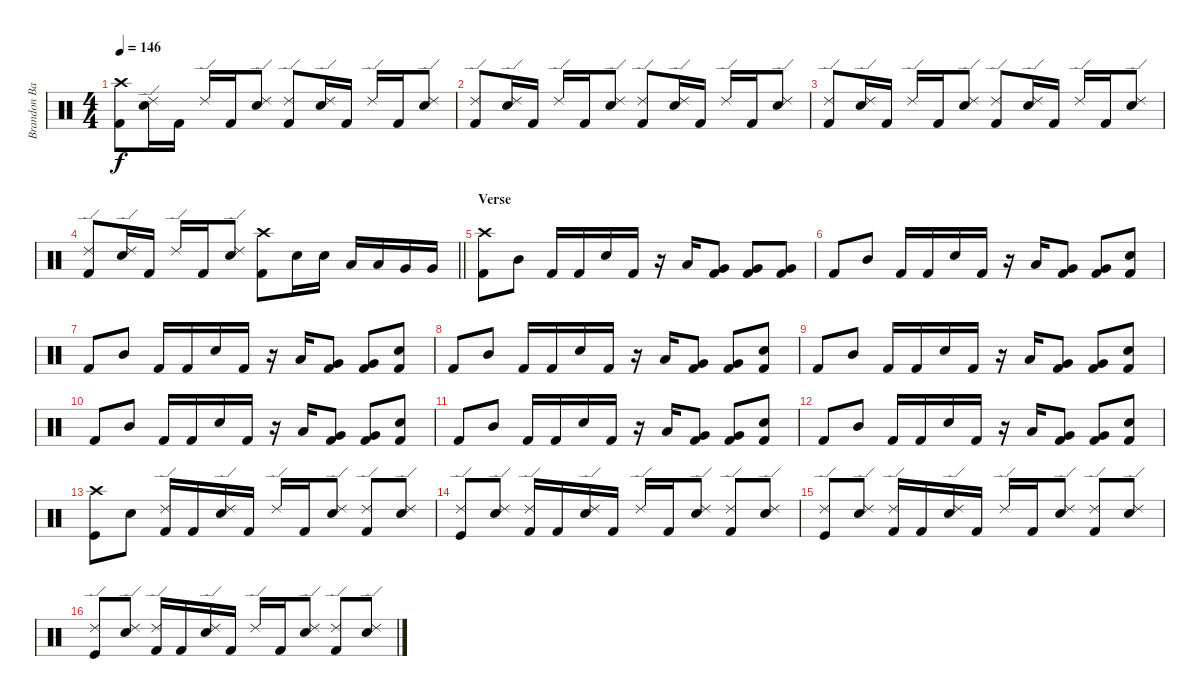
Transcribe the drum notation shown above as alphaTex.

\track ("Brandon Barnes - Drums" "Brandon Ba") {instrument percussion}
\staff {score}
\articulation defaults
\ts (4 4)
\tempo 146
\clef neutral
\ks c
("Crash high (hit)" "Kick (hit) 2").8{dy f} ("Snare (hit) 2" "Ride (edge) 2").16 "Kick (hit) 2".16 "Ride (edge) 2".16 "Kick (hit) 2".16 ("Snare (hit) 2" "Ride (edge) 2").8 ("Ride (edge) 2" "Kick (hit) 2").8 ("Snare (hit) 2" "Ride (edge) 2").16 "Kick (hit) 2".16 "Ride (edge) 2".16 "Kick (hit) 2".16 ("Snare (hit) 2" "Ride (edge) 2").8 |
("Ride (edge) 2" "Kick (hit) 2").8 ("Snare (hit) 2" "Ride (edge) 2").16 "Kick (hit) 2".16 "Ride (edge) 2".16 "Kick (hit) 2".16 ("Snare (hit) 2" "Ride (edge) 2").8 ("Ride (edge) 2" "Kick (hit) 2").8 ("Snare (hit) 2" "Ride (edge) 2").16 "Kick (hit) 2".16 "Ride (edge) 2".16 "Kick (hit) 2".16 ("Snare (hit) 2" "Ride (edge) 2").8 |
("Ride (edge) 2" "Kick (hit) 2").8 ("Snare (hit) 2" "Ride (edge) 2").16 "Kick (hit) 2".16 "Ride (edge) 2".16 "Kick (hit) 2".16 ("Snare (hit) 2" "Ride (edge) 2").8 ("Ride (edge) 2" "Kick (hit) 2").8 ("Snare (hit) 2" "Ride (edge) 2").16 "Kick (hit) 2".16 "Ride (edge) 2".16 "Kick (hit) 2".16 ("Snare (hit) 2" "Ride (edge) 2").8 |
\barLineRight lightlight
("Ride (edge) 2" "Kick (hit) 2").8 ("Snare (hit) 2" "Ride (edge) 2").16 "Kick (hit) 2".16 "Ride (edge) 2".16 "Kick (hit) 2".16 ("Snare (hit) 2" "Ride (edge) 2").8 ("Crash high (hit)" "Kick (hit) 2").8 "Snare (hit) 2".16 "Snare (hit) 2".16 "Low Tom (hit)".16 "Low Tom (hit)".16 "Very Low Tom (hit)".16 "Very Low Tom (hit)".16 |
\section ("" "Verse")
("Crash high (hit)" "Kick (hit) 2").8 "Mid Tom (hit)".8 "Kick (hit) 2".16 "Kick (hit) 2".16 "Snare (hit) 2".16 "Kick (hit) 2".16 r.16 "Low Tom (hit)".16 ("Kick (hit) 2" "Very Low Tom (hit)").8 ("Kick (hit) 2" "Very Low Tom (hit)").8 ("Kick (hit) 2" "Very Low Tom (hit)").8 |
"Kick (hit) 2".8 "Mid Tom (hit)".8 "Kick (hit) 2".16 "Kick (hit) 2".16 "Snare (hit) 2".16 "Kick (hit) 2".16 r.16 "Low Tom (hit)".16 ("Kick (hit) 2" "Very Low Tom (hit)").8 ("Kick (hit) 2" "Very Low Tom (hit)").8 ("Kick (hit) 2" "Snare (hit) 2").8 |
"Kick (hit) 2".8 "Mid Tom (hit)".8 "Kick (hit) 2".16 "Kick (hit) 2".16 "Snare (hit) 2".16 "Kick (hit) 2".16 r.16 "Low Tom (hit)".16 ("Kick (hit) 2" "Very Low Tom (hit)").8 ("Kick (hit) 2" "Very Low Tom (hit)").8 ("Kick (hit) 2" "Snare (hit) 2").8 |
"Kick (hit) 2".8 "Mid Tom (hit)".8 "Kick (hit) 2".16 "Kick (hit) 2".16 "Snare (hit) 2".16 "Kick (hit) 2".16 r.16 "Low Tom (hit)".16 ("Kick (hit) 2" "Very Low Tom (hit)").8 ("Kick (hit) 2" "Very Low Tom (hit)").8 ("Kick (hit) 2" "Snare (hit) 2").8 |
"Kick (hit) 2".8 "Mid Tom (hit)".8 "Kick (hit) 2".16 "Kick (hit) 2".16 "Snare (hit) 2".16 "Kick (hit) 2".16 r.16 "Low Tom (hit)".16 ("Kick (hit) 2" "Very Low Tom (hit)").8 ("Kick (hit) 2" "Very Low Tom (hit)").8 ("Kick (hit) 2" "Snare (hit) 2").8 |
"Kick (hit) 2".8 "Mid Tom (hit)".8 "Kick (hit) 2".16 "Kick (hit) 2".16 "Snare (hit) 2".16 "Kick (hit) 2".16 r.16 "Low Tom (hit)".16 ("Kick (hit) 2" "Very Low Tom (hit)").8 ("Kick (hit) 2" "Very Low Tom (hit)").8 ("Kick (hit) 2" "Snare (hit) 2").8 |
"Kick (hit) 2".8 "Mid Tom (hit)".8 "Kick (hit) 2".16 "Kick (hit) 2".16 "Snare (hit) 2".16 "Kick (hit) 2".16 r.16 "Low Tom (hit)".16 ("Kick (hit) 2" "Very Low Tom (hit)").8 ("Kick (hit) 2" "Very Low Tom (hit)").8 ("Kick (hit) 2" "Snare (hit) 2").8 |
"Kick (hit) 2".8 "Mid Tom (hit)".8 "Kick (hit) 2".16 "Kick (hit) 2".16 "Snare (hit) 2".16 "Kick (hit) 2".16 r.16 "Low Tom (hit)".16 ("Kick (hit) 2" "Very Low Tom (hit)").8 ("Kick (hit) 2" "Very Low Tom (hit)").8 ("Kick (hit) 2" "Snare (hit) 2").8 |
("Crash high (hit)" "Kick (hit)").8 "Snare (hit) 2".8 ("Kick (hit) 2" "Ride (edge) 2").16 "Kick (hit) 2".16 ("Snare (hit) 2" "Ride (edge) 2").16 "Kick (hit) 2".16 "Ride (edge) 2".16 "Kick (hit) 2".16 ("Snare (hit) 2" "Ride (edge) 2").8 ("Kick (hit) 2" "Ride (edge) 2").8 ("Snare (hit) 2" "Ride (edge) 2").8 |
("Ride (edge) 2" "Kick (hit)").8 ("Ride (edge) 2" "Snare (hit) 2").8 ("Kick (hit) 2" "Ride (edge) 2").16 "Kick (hit) 2".16 ("Snare (hit) 2" "Ride (edge) 2").16 "Kick (hit) 2".16 "Ride (edge) 2".16 "Kick (hit) 2".16 ("Snare (hit) 2" "Ride (edge) 2").8 ("Kick (hit) 2" "Ride (edge) 2").8 ("Snare (hit) 2" "Ride (edge) 2").8 |
("Ride (edge) 2" "Kick (hit)").8 ("Ride (edge) 2" "Snare (hit) 2").8 ("Kick (hit) 2" "Ride (edge) 2").16 "Kick (hit) 2".16 ("Snare (hit) 2" "Ride (edge) 2").16 "Kick (hit) 2".16 "Ride (edge) 2".16 "Kick (hit) 2".16 ("Snare (hit) 2" "Ride (edge) 2").8 ("Kick (hit) 2" "Ride (edge) 2").8 ("Snare (hit) 2" "Ride (edge) 2").8 |
("Ride (edge) 2" "Kick (hit)").8 ("Ride (edge) 2" "Snare (hit) 2").8 ("Kick (hit) 2" "Ride (edge) 2").16 "Kick (hit) 2".16 ("Snare (hit) 2" "Ride (edge) 2").16 "Kick (hit) 2".16 "Ride (edge) 2".16 "Kick (hit) 2".16 ("Snare (hit) 2" "Ride (edge) 2").8 ("Kick (hit) 2" "Ride (edge) 2").8 ("Snare (hit) 2" "Ride (edge) 2").8
